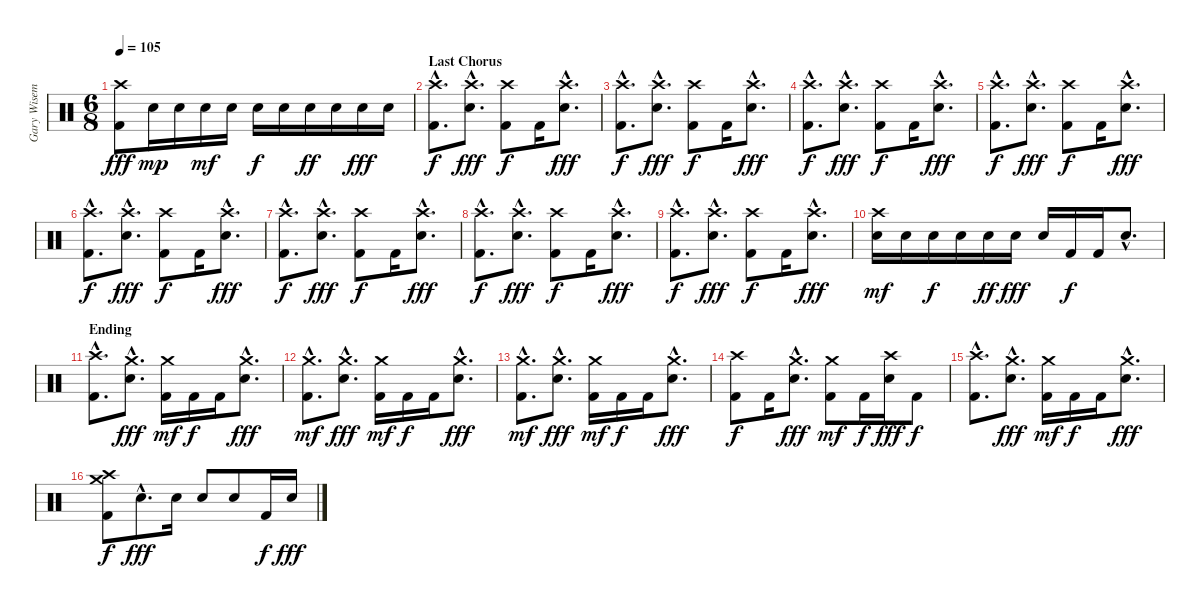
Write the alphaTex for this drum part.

\track ("Gary Wiseman - Drums" "Gary Wisem") {instrument percussion}
\staff {score}
\articulation defaults
\ts (6 8)
\tempo 105
\clef neutral
\ks c
("Crash high (hit)" "Kick (hit) 2").8{dy fff} "Electric Snare (hit)".16{dy mp} "Electric Snare (hit)".16 "Electric Snare (hit)".16{dy mf} "Electric Snare (hit)".16 "Electric Snare (hit)".16{dy f} "Electric Snare (hit)".16 "Electric Snare (hit)".16{dy ff} "Electric Snare (hit)".16 "Electric Snare (hit)".16{dy fff} "Electric Snare (hit)".16 |
\section ("" "Last Chorus")
("Crash high (hit)"{hac} "Kick (hit) 2"{hac}).8{d dy f} ("Crash high (hit)"{hac} "Electric Snare (hit)"{hac}).8{d dy fff} ("Crash high (hit)" "Kick (hit) 2").8{dy f} "Kick (hit) 2".16 ("Crash high (hit)"{hac} "Electric Snare (hit)"{hac}).8{d dy fff} |
("Crash high (hit)"{hac} "Kick (hit) 2"{hac}).8{d dy f} ("Crash high (hit)"{hac} "Electric Snare (hit)"{hac}).8{d dy fff} ("Crash high (hit)" "Kick (hit) 2").8{dy f} "Kick (hit) 2".16 ("Crash high (hit)"{hac} "Electric Snare (hit)"{hac}).8{d dy fff} |
("Crash high (hit)"{hac} "Kick (hit) 2"{hac}).8{d dy f} ("Crash high (hit)"{hac} "Electric Snare (hit)"{hac}).8{d dy fff} ("Crash high (hit)" "Kick (hit) 2").8{dy f} "Kick (hit) 2".16 ("Crash high (hit)"{hac} "Electric Snare (hit)"{hac}).8{d dy fff} |
("Crash high (hit)"{hac} "Kick (hit) 2"{hac}).8{d dy f} ("Crash high (hit)"{hac} "Electric Snare (hit)"{hac}).8{d dy fff} ("Crash high (hit)" "Kick (hit) 2").8{dy f} "Kick (hit) 2".16 ("Crash high (hit)"{hac} "Electric Snare (hit)"{hac}).8{d dy fff} |
("Crash high (hit)"{hac} "Kick (hit) 2"{hac}).8{d dy f} ("Crash high (hit)"{hac} "Electric Snare (hit)"{hac}).8{d dy fff} ("Crash high (hit)" "Kick (hit) 2").8{dy f} "Kick (hit) 2".16 ("Crash high (hit)"{hac} "Electric Snare (hit)"{hac}).8{d dy fff} |
("Crash high (hit)"{hac} "Kick (hit) 2"{hac}).8{d dy f} ("Crash high (hit)"{hac} "Electric Snare (hit)"{hac}).8{d dy fff} ("Crash high (hit)" "Kick (hit) 2").8{dy f} "Kick (hit) 2".16 ("Crash high (hit)"{hac} "Electric Snare (hit)"{hac}).8{d dy fff} |
("Crash high (hit)"{hac} "Kick (hit) 2"{hac}).8{d dy f} ("Crash high (hit)"{hac} "Electric Snare (hit)"{hac}).8{d dy fff} ("Crash high (hit)" "Kick (hit) 2").8{dy f} "Kick (hit) 2".16 ("Crash high (hit)"{hac} "Electric Snare (hit)"{hac}).8{d dy fff} |
("Crash high (hit)"{hac} "Kick (hit) 2"{hac}).8{d dy f} ("Crash high (hit)"{hac} "Electric Snare (hit)"{hac}).8{d dy fff} ("Crash high (hit)" "Kick (hit) 2").8{dy f} "Kick (hit) 2".16 ("Crash high (hit)"{hac} "Electric Snare (hit)"{hac}).8{d dy fff} |
("Crash high (hit)" "Electric Snare (hit)").16{dy mf} "Electric Snare (hit)".16 "Electric Snare (hit)".16{dy f} "Electric Snare (hit)".16 "Electric Snare (hit)".16{dy ff} "Electric Snare (hit)".16{dy fff} "Electric Snare (hit)".16 "Kick (hit) 2".16{dy f} "Kick (hit) 2".16 "Electric Snare (hit)"{hac}.8{d} |
\section ("" "Ending")
("Crash high (hit)"{hac} "Kick (hit) 2"{hac}).8{d} ("Crash medium (hit)"{hac} "Electric Snare (hit)"{hac}).8{d dy fff} ("Crash medium (hit)" "Kick (hit) 2").16{dy mf} "Kick (hit) 2".16{dy f} "Kick (hit) 2".16 ("Crash medium (hit)"{hac} "Electric Snare (hit)"{hac}).8{d dy fff} |
("Crash medium (hit)"{hac} "Kick (hit) 2"{hac}).8{d dy mf} ("Crash medium (hit)"{hac} "Electric Snare (hit)"{hac}).8{d dy fff} ("Crash medium (hit)" "Kick (hit) 2").16{dy mf} "Kick (hit) 2".16{dy f} "Kick (hit) 2".16 ("Crash medium (hit)"{hac} "Electric Snare (hit)"{hac}).8{d dy fff} |
("Crash medium (hit)"{hac} "Kick (hit) 2"{hac}).8{d dy mf} ("Crash medium (hit)"{hac} "Electric Snare (hit)"{hac}).8{d dy fff} ("Crash medium (hit)" "Kick (hit) 2").16{dy mf} "Kick (hit) 2".16{dy f} "Kick (hit) 2".16 ("Crash medium (hit)"{hac} "Electric Snare (hit)"{hac}).8{d dy fff} |
("Crash high (hit)" "Kick (hit) 2").8{dy f} "Kick (hit) 2".16 ("Crash medium (hit)"{hac} "Electric Snare (hit)"{hac}).8{d dy fff} ("Crash medium (hit)" "Kick (hit) 2").8{dy mf} "Kick (hit) 2".16{dy f} ("Crash high (hit)" "Electric Snare (hit)").16{dy fff} "Kick (hit) 2".8{dy f} |
("Crash high (hit)"{hac} "Kick (hit) 2"{hac}).8{d} ("Crash medium (hit)"{hac} "Electric Snare (hit)"{hac}).8{d dy fff} ("Crash medium (hit)" "Kick (hit) 2").16{dy mf} "Kick (hit) 2".16{dy f} "Kick (hit) 2".16 ("Crash medium (hit)"{hac} "Electric Snare (hit)"{hac}).8{d dy fff} |
("Crash medium (hit)" "Crash high (hit)" "Kick (hit) 2").8{dy f} "Electric Snare (hit)"{hac}.8{d dy fff} "Electric Snare (hit)".16 "Electric Snare (hit)".8 "Electric Snare (hit)".8 "Kick (hit) 2".16{dy f} "Electric Snare (hit)".16{dy fff}
